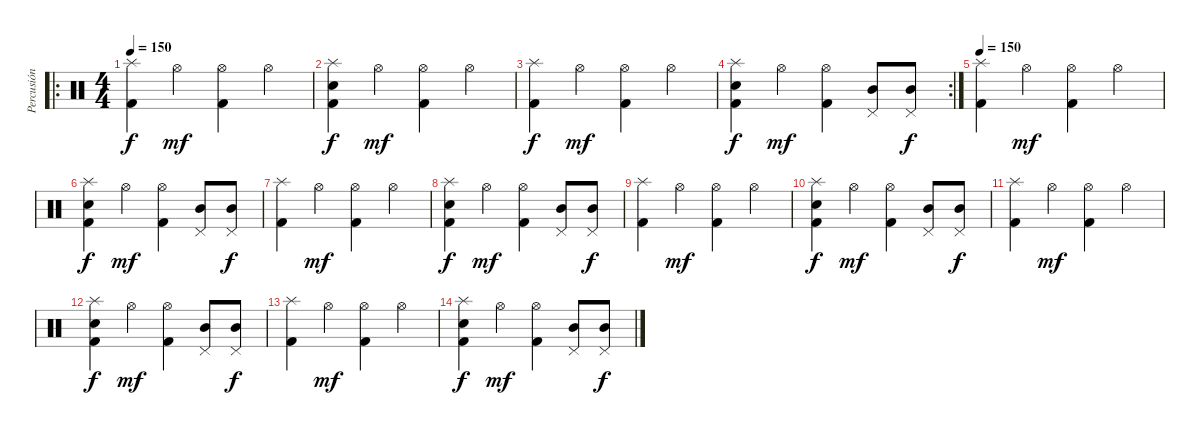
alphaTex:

\track ("Percusión" "Percusión") {instrument percussion}
\staff {score}
\articulation defaults
\ro
\ts (4 4)
\tempo 150
\clef neutral
\ks c
("Splash (hit)" "Kick (hit) 2").4{dy f} "Hi-Hat (open)".4{dy mf} ("Hi-Hat (open)" "Kick (hit) 2").4 "Hi-Hat (open)".4 |
("Splash (hit)" "Electric Snare (hit)" "Kick (hit) 2").4{dy f} "Hi-Hat (open)".4{dy mf} ("Hi-Hat (open)" "Kick (hit) 2").4 "Hi-Hat (open)".4 |
("Splash (hit)" "Kick (hit) 2").4{dy f} "Hi-Hat (open)".4{dy mf} ("Hi-Hat (open)" "Kick (hit) 2").4 "Hi-Hat (open)".4 |
\rc 2
("Splash (hit)" "Electric Snare (hit)" "Kick (hit) 2").4{dy f} "Hi-Hat (open)".4{dy mf} ("Hi-Hat (open)" "Kick (hit) 2").4 ("Mid Tom (hit)" "Pedal Hi-Hat (hit)").8 ("Mid Tom (hit)" "Pedal Hi-Hat (hit)").8{dy f} |
\tempo 150
("Splash (hit)" "Kick (hit) 2").4 "Hi-Hat (open)".4{dy mf} ("Hi-Hat (open)" "Kick (hit) 2").4 "Hi-Hat (open)".4 |
("Splash (hit)" "Electric Snare (hit)" "Kick (hit) 2").4{dy f} "Hi-Hat (open)".4{dy mf} ("Hi-Hat (open)" "Kick (hit) 2").4 ("Mid Tom (hit)" "Pedal Hi-Hat (hit)").8 ("Mid Tom (hit)" "Pedal Hi-Hat (hit)").8{dy f} |
("Splash (hit)" "Kick (hit) 2").4 "Hi-Hat (open)".4{dy mf} ("Hi-Hat (open)" "Kick (hit) 2").4 "Hi-Hat (open)".4 |
("Splash (hit)" "Electric Snare (hit)" "Kick (hit) 2").4{dy f} "Hi-Hat (open)".4{dy mf} ("Hi-Hat (open)" "Kick (hit) 2").4 ("Mid Tom (hit)" "Pedal Hi-Hat (hit)").8 ("Mid Tom (hit)" "Pedal Hi-Hat (hit)").8{dy f} |
("Splash (hit)" "Kick (hit) 2").4 "Hi-Hat (open)".4{dy mf} ("Hi-Hat (open)" "Kick (hit) 2").4 "Hi-Hat (open)".4 |
("Splash (hit)" "Electric Snare (hit)" "Kick (hit) 2").4{dy f} "Hi-Hat (open)".4{dy mf} ("Hi-Hat (open)" "Kick (hit) 2").4 ("Mid Tom (hit)" "Pedal Hi-Hat (hit)").8 ("Mid Tom (hit)" "Pedal Hi-Hat (hit)").8{dy f} |
("Splash (hit)" "Kick (hit) 2").4 "Hi-Hat (open)".4{dy mf} ("Hi-Hat (open)" "Kick (hit) 2").4 "Hi-Hat (open)".4 |
("Splash (hit)" "Electric Snare (hit)" "Kick (hit) 2").4{dy f} "Hi-Hat (open)".4{dy mf} ("Hi-Hat (open)" "Kick (hit) 2").4 ("Mid Tom (hit)" "Pedal Hi-Hat (hit)").8 ("Mid Tom (hit)" "Pedal Hi-Hat (hit)").8{dy f} |
("Splash (hit)" "Kick (hit) 2").4 "Hi-Hat (open)".4{dy mf} ("Hi-Hat (open)" "Kick (hit) 2").4 "Hi-Hat (open)".4 |
("Splash (hit)" "Electric Snare (hit)" "Kick (hit) 2").4{dy f} "Hi-Hat (open)".4{dy mf} ("Hi-Hat (open)" "Kick (hit) 2").4 ("Mid Tom (hit)" "Pedal Hi-Hat (hit)").8 ("Mid Tom (hit)" "Pedal Hi-Hat (hit)").8{dy f}
